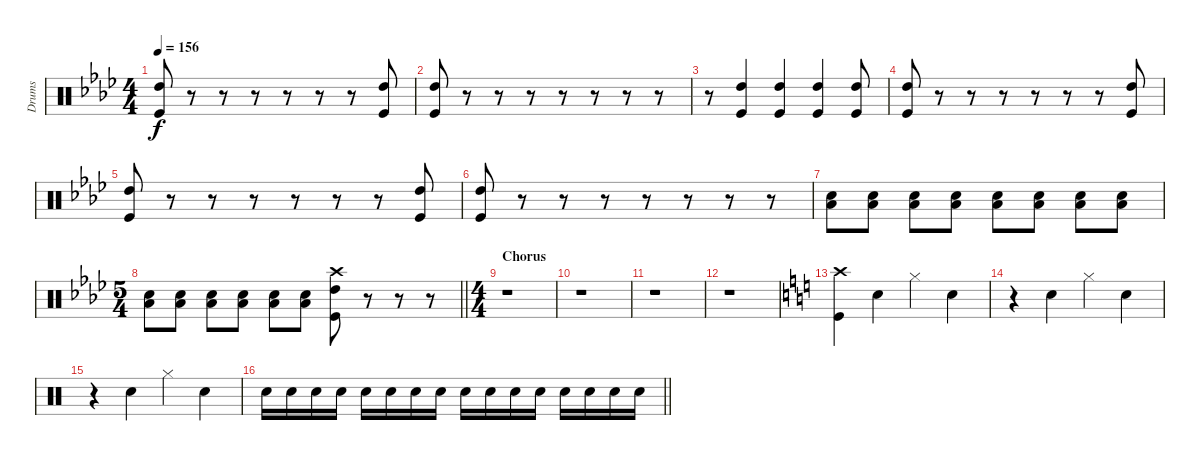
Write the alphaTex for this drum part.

\track ("Drums" "Drums") {instrument percussion}
\staff {score}
\articulation defaults
\ts (4 4)
\tempo 156
\clef neutral
\ks ab
("High Tom (hit)" "Kick (hit)").8{dy f} r.8 r.8 r.8 r.8 r.8 r.8 ("High Tom (hit)" "Kick (hit)").8 |
("High Tom (hit)" "Kick (hit)").8 r.8 r.8 r.8 r.8 r.8 r.8 r.8 |
r.8 ("High Tom (hit)" "Kick (hit)").4 ("High Tom (hit)" "Kick (hit)").4 ("High Tom (hit)" "Kick (hit)").4 ("High Tom (hit)" "Kick (hit)").8 |
("High Tom (hit)" "Kick (hit)").8 r.8 r.8 r.8 r.8 r.8 r.8 ("High Tom (hit)" "Kick (hit)").8 |
("High Tom (hit)" "Kick (hit)").8 r.8 r.8 r.8 r.8 r.8 r.8 ("High Tom (hit)" "Kick (hit)").8 |
("High Tom (hit)" "Kick (hit)").8 r.8 r.8 r.8 r.8 r.8 r.8 r.8 |
("Snare (hit) 2" "Low Tom (hit)").8 ("Snare (hit) 2" "Low Tom (hit)").8 ("Snare (hit) 2" "Low Tom (hit)").8 ("Snare (hit) 2" "Low Tom (hit)").8 ("Snare (hit) 2" "Low Tom (hit)").8 ("Snare (hit) 2" "Low Tom (hit)").8 ("Snare (hit) 2" "Low Tom (hit)").8 ("Snare (hit) 2" "Low Tom (hit)").8 |
\ts (5 4)
\barLineRight lightlight
("Snare (hit) 2" "Low Tom (hit)").8 ("Snare (hit) 2" "Low Tom (hit)").8 ("Snare (hit) 2" "Low Tom (hit)").8 ("Snare (hit) 2" "Low Tom (hit)").8 ("Snare (hit) 2" "Low Tom (hit)").8 ("Snare (hit) 2" "Low Tom (hit)").8 ("Crash high (hit)" "High Tom (hit)" "Kick (hit)").8 r.8 r.8 r.8 |
\ts (4 4)
\section ("" "Chorus")
r.1 |
r.1 |
r.1 |
r.1 |
\ks c
("Crash high (hit)" "Kick (hit)").4 "Snare (hit) 2".4 "Hi-Hat (closed)".4 "Snare (hit) 2".4 |
r.4 "Snare (hit) 2".4 "Hi-Hat (closed)".4 "Snare (hit) 2".4 |
r.4 "Snare (hit) 2".4 "Hi-Hat (closed)".4 "Snare (hit) 2".4 |
\barLineRight lightlight "Snare (hit) 2".16 "Snare (hit) 2".16 "Snare (hit) 2".16 "Snare (hit) 2".16 "Snare (hit) 2".16 "Snare (hit) 2".16 "Snare (hit) 2".16 "Snare (hit) 2".16 "Snare (hit) 2".16 "Snare (hit) 2".16 "Snare (hit) 2".16 "Snare (hit) 2".16 "Snare (hit) 2".16 "Snare (hit) 2".16 "Snare (hit) 2".16 "Snare (hit) 2".16
